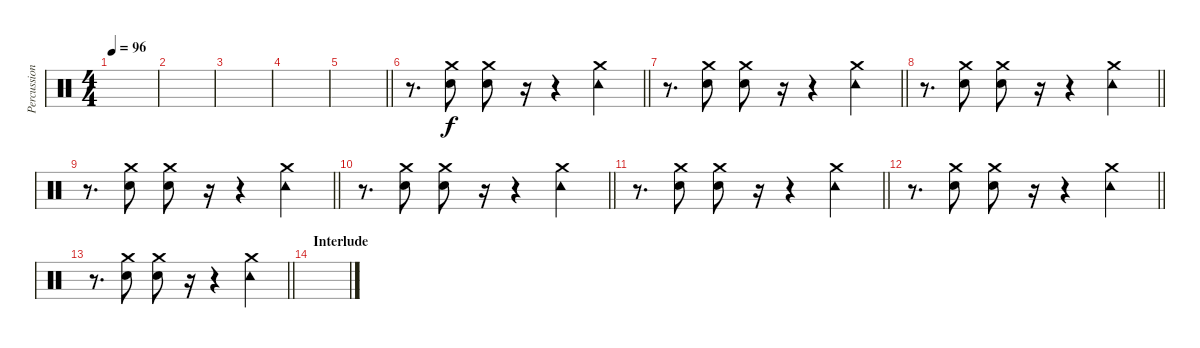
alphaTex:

\track ("Percussion" "Percussion") {instrument percussion}
\staff {score}
\articulation defaults
\ts (4 4)
\tempo 96
\clef neutral
\ks c
|
|
|
|
\barLineRight lightlight
|
\barLineRight lightlight
r.8{d} ("Crash medium (hit)" "Snare (hit) 2").8 ("Crash medium (hit)" "Snare (hit) 2").8 r.16 r.4 ("Crash medium (hit)" "Tambourine (hit)").4 |
\barLineRight lightlight
r.8{d} ("Crash medium (hit)" "Snare (hit) 2").8 ("Crash medium (hit)" "Snare (hit) 2").8 r.16 r.4 ("Crash medium (hit)" "Tambourine (hit)").4 |
\barLineRight lightlight
r.8{d} ("Crash medium (hit)" "Snare (hit) 2").8 ("Crash medium (hit)" "Snare (hit) 2").8 r.16 r.4 ("Crash medium (hit)" "Tambourine (hit)").4 |
\barLineRight lightlight
r.8{d} ("Crash medium (hit)" "Snare (hit) 2").8 ("Crash medium (hit)" "Snare (hit) 2").8 r.16 r.4 ("Crash medium (hit)" "Tambourine (hit)").4 |
\barLineRight lightlight
r.8{d} ("Crash medium (hit)" "Snare (hit) 2").8 ("Crash medium (hit)" "Snare (hit) 2").8 r.16 r.4 ("Crash medium (hit)" "Tambourine (hit)").4 |
\barLineRight lightlight
r.8{d} ("Crash medium (hit)" "Snare (hit) 2").8 ("Crash medium (hit)" "Snare (hit) 2").8 r.16 r.4 ("Crash medium (hit)" "Tambourine (hit)").4 |
\barLineRight lightlight
r.8{d} ("Crash medium (hit)" "Snare (hit) 2").8 ("Crash medium (hit)" "Snare (hit) 2").8 r.16 r.4 ("Crash medium (hit)" "Tambourine (hit)").4 |
\barLineRight lightlight
r.8{d} ("Crash medium (hit)" "Snare (hit) 2").8 ("Crash medium (hit)" "Snare (hit) 2").8 r.16 r.4 ("Crash medium (hit)" "Tambourine (hit)").4 |
\section ("" "Interlude")
